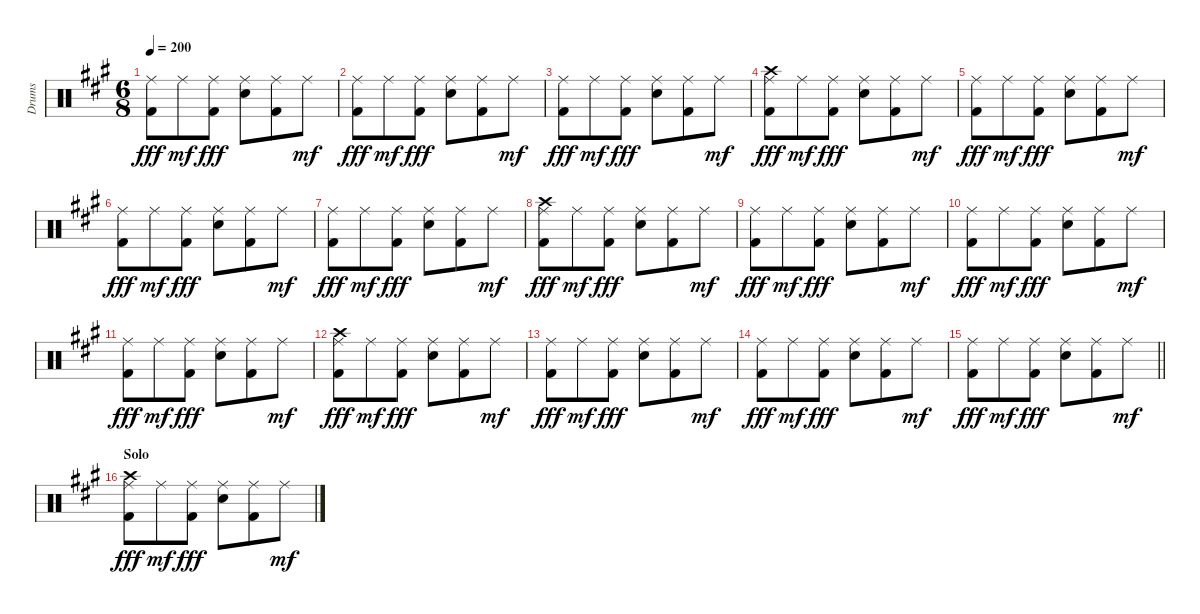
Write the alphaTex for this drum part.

\track ("Drums" "Drums") {instrument percussion}
\staff {score}
\articulation defaults
\ts (6 8)
\tempo 200
\clef neutral
\ks f#minor
("Ride (middle)" "Kick (hit) 2").8{dy fff} "Ride (middle)".8{dy mf} ("Ride (middle)" "Kick (hit) 2").8{dy fff} ("Ride (middle)" "Electric Snare (hit)").8 ("Ride (middle)" "Kick (hit) 2").8 "Ride (middle)".8{dy mf} |
("Ride (middle)" "Kick (hit) 2").8{dy fff} "Ride (middle)".8{dy mf} ("Ride (middle)" "Kick (hit) 2").8{dy fff} ("Ride (middle)" "Electric Snare (hit)").8 ("Ride (middle)" "Kick (hit) 2").8 "Ride (middle)".8{dy mf} |
("Ride (middle)" "Kick (hit) 2").8{dy fff} "Ride (middle)".8{dy mf} ("Ride (middle)" "Kick (hit) 2").8{dy fff} ("Ride (middle)" "Electric Snare (hit)").8 ("Ride (middle)" "Kick (hit) 2").8 "Ride (middle)".8{dy mf} |
("Ride (middle)" "Crash high (hit)" "Kick (hit) 2").8{dy fff} "Ride (middle)".8{dy mf} ("Ride (middle)" "Kick (hit) 2").8{dy fff} ("Ride (middle)" "Electric Snare (hit)").8 ("Ride (middle)" "Kick (hit) 2").8 "Ride (middle)".8{dy mf} |
("Ride (middle)" "Kick (hit) 2").8{dy fff} "Ride (middle)".8{dy mf} ("Ride (middle)" "Kick (hit) 2").8{dy fff} ("Ride (middle)" "Electric Snare (hit)").8 ("Ride (middle)" "Kick (hit) 2").8 "Ride (middle)".8{dy mf} |
("Ride (middle)" "Kick (hit) 2").8{dy fff} "Ride (middle)".8{dy mf} ("Ride (middle)" "Kick (hit) 2").8{dy fff} ("Ride (middle)" "Electric Snare (hit)").8 ("Ride (middle)" "Kick (hit) 2").8 "Ride (middle)".8{dy mf} |
("Ride (middle)" "Kick (hit) 2").8{dy fff} "Ride (middle)".8{dy mf} ("Ride (middle)" "Kick (hit) 2").8{dy fff} ("Ride (middle)" "Electric Snare (hit)").8 ("Ride (middle)" "Kick (hit) 2").8 "Ride (middle)".8{dy mf} |
("Ride (middle)" "Crash high (hit)" "Kick (hit) 2").8{dy fff} "Ride (middle)".8{dy mf} ("Ride (middle)" "Kick (hit) 2").8{dy fff} ("Ride (middle)" "Electric Snare (hit)").8 ("Ride (middle)" "Kick (hit) 2").8 "Ride (middle)".8{dy mf} |
("Ride (middle)" "Kick (hit) 2").8{dy fff} "Ride (middle)".8{dy mf} ("Ride (middle)" "Kick (hit) 2").8{dy fff} ("Ride (middle)" "Electric Snare (hit)").8 ("Ride (middle)" "Kick (hit) 2").8 "Ride (middle)".8{dy mf} |
("Ride (middle)" "Kick (hit) 2").8{dy fff} "Ride (middle)".8{dy mf} ("Ride (middle)" "Kick (hit) 2").8{dy fff} ("Ride (middle)" "Electric Snare (hit)").8 ("Ride (middle)" "Kick (hit) 2").8 "Ride (middle)".8{dy mf} |
("Ride (middle)" "Kick (hit) 2").8{dy fff} "Ride (middle)".8{dy mf} ("Ride (middle)" "Kick (hit) 2").8{dy fff} ("Ride (middle)" "Electric Snare (hit)").8 ("Ride (middle)" "Kick (hit) 2").8 "Ride (middle)".8{dy mf} |
("Ride (middle)" "Crash high (hit)" "Kick (hit) 2").8{dy fff} "Ride (middle)".8{dy mf} ("Ride (middle)" "Kick (hit) 2").8{dy fff} ("Ride (middle)" "Electric Snare (hit)").8 ("Ride (middle)" "Kick (hit) 2").8 "Ride (middle)".8{dy mf} |
("Ride (middle)" "Kick (hit) 2").8{dy fff} "Ride (middle)".8{dy mf} ("Ride (middle)" "Kick (hit) 2").8{dy fff} ("Ride (middle)" "Electric Snare (hit)").8 ("Ride (middle)" "Kick (hit) 2").8 "Ride (middle)".8{dy mf} |
("Ride (middle)" "Kick (hit) 2").8{dy fff} "Ride (middle)".8{dy mf} ("Ride (middle)" "Kick (hit) 2").8{dy fff} ("Ride (middle)" "Electric Snare (hit)").8 ("Ride (middle)" "Kick (hit) 2").8 "Ride (middle)".8{dy mf} |
\barLineRight lightlight
("Ride (middle)" "Kick (hit) 2").8{dy fff} "Ride (middle)".8{dy mf} ("Ride (middle)" "Kick (hit) 2").8{dy fff} ("Ride (middle)" "Electric Snare (hit)").8 ("Ride (middle)" "Kick (hit) 2").8 "Ride (middle)".8{dy mf} |
\section ("" "Solo")
("Ride (middle)" "Crash high (hit)" "Kick (hit) 2").8{dy fff} "Ride (middle)".8{dy mf} ("Ride (middle)" "Kick (hit) 2").8{dy fff} ("Ride (middle)" "Electric Snare (hit)").8 ("Ride (middle)" "Kick (hit) 2").8 "Ride (middle)".8{dy mf}
